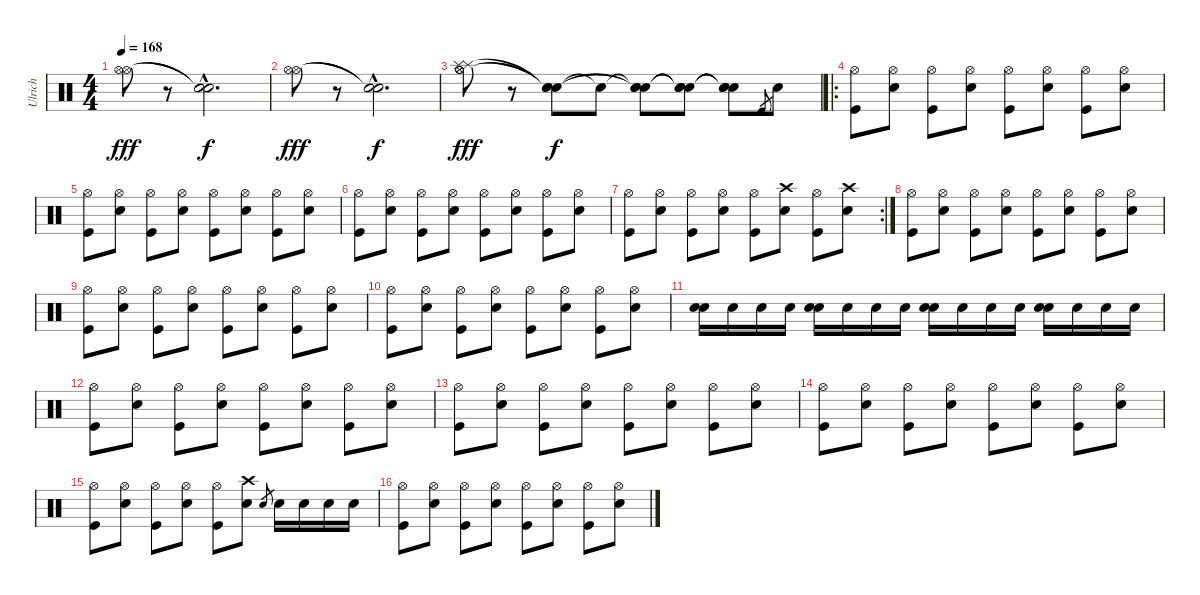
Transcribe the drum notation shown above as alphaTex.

\track ("Ulrich" "Ulrich") {instrument percussion}
\staff {score}
\articulation defaults
\ts (4 4)
\tempo 168
\clef neutral
\ks c
("Hi-Hat (open)" "Hi-Hat (open)").8{dy fff} r.8 ("Snare (hit)"{hac t} "Snare (hit)"{hac t}).2{d dy f} |
("Hi-Hat (open)" "Hi-Hat (open)").8{dy fff} r.8 ("Snare (hit)"{hac t} "Snare (hit)"{hac t}).2{d dy f} |
("Hi-Hat (open)" "Hi-Hat (open)" "Splash (hit)" "Splash (hit)").8{dy fff} r.8 ("Snare (hit)"{t} "Snare (hit)"{t} "Snare (hit)"{t}).8{dy f} "Snare (hit)"{t}.8 ("Snare (hit)"{t} "Snare (hit)"{t} "Snare (hit)"{t}).8 ("Snare (hit)"{t} "Snare (hit)"{t} "Snare (hit)"{t}).8 ("Snare (hit)"{t} "Snare (hit)"{t} "Snare (hit)"{t}).8 "Kick (hit)".8{gr} "Snare (hit) 2".8 |
\ro
("Hi-Hat (open)" "Kick (hit)").8 ("Hi-Hat (open)" "Snare (hit) 2").8 ("Hi-Hat (open)" "Kick (hit)").8 ("Hi-Hat (open)" "Snare (hit) 2").8 ("Hi-Hat (open)" "Kick (hit)").8 ("Hi-Hat (open)" "Snare (hit) 2").8 ("Hi-Hat (open)" "Kick (hit)").8 ("Hi-Hat (open)" "Snare (hit) 2").8 |
("Hi-Hat (open)" "Kick (hit)").8 ("Hi-Hat (open)" "Snare (hit) 2").8 ("Hi-Hat (open)" "Kick (hit)").8 ("Hi-Hat (open)" "Snare (hit) 2").8 ("Hi-Hat (open)" "Kick (hit)").8 ("Hi-Hat (open)" "Snare (hit) 2").8 ("Hi-Hat (open)" "Kick (hit)").8 ("Hi-Hat (open)" "Snare (hit) 2").8 |
("Hi-Hat (open)" "Kick (hit)").8 ("Hi-Hat (open)" "Snare (hit) 2").8 ("Hi-Hat (open)" "Kick (hit)").8 ("Hi-Hat (open)" "Snare (hit) 2").8 ("Hi-Hat (open)" "Kick (hit)").8 ("Hi-Hat (open)" "Snare (hit) 2").8 ("Hi-Hat (open)" "Kick (hit)").8 ("Hi-Hat (open)" "Snare (hit) 2").8 |
\rc 2
("Hi-Hat (open)" "Kick (hit)").8 ("Hi-Hat (open)" "Snare (hit) 2").8 ("Hi-Hat (open)" "Kick (hit)").8 ("Hi-Hat (open)" "Snare (hit) 2").8 ("Hi-Hat (open)" "Kick (hit)").8 ("Crash high (hit)" "Snare (hit) 2").8 ("Hi-Hat (open)" "Kick (hit)").8 ("Crash high (hit)" "Snare (hit) 2").8 |
("Hi-Hat (open)" "Kick (hit)").8 ("Hi-Hat (open)" "Snare (hit) 2").8 ("Hi-Hat (open)" "Kick (hit)").8 ("Hi-Hat (open)" "Snare (hit) 2").8 ("Hi-Hat (open)" "Kick (hit)").8 ("Hi-Hat (open)" "Snare (hit) 2").8 ("Hi-Hat (open)" "Kick (hit)").8 ("Hi-Hat (open)" "Snare (hit) 2").8 |
("Hi-Hat (open)" "Kick (hit)").8 ("Hi-Hat (open)" "Snare (hit) 2").8 ("Hi-Hat (open)" "Kick (hit)").8 ("Hi-Hat (open)" "Snare (hit) 2").8 ("Hi-Hat (open)" "Kick (hit)").8 ("Hi-Hat (open)" "Snare (hit) 2").8 ("Hi-Hat (open)" "Kick (hit)").8 ("Hi-Hat (open)" "Snare (hit) 2").8 |
("Hi-Hat (open)" "Kick (hit)").8 ("Hi-Hat (open)" "Snare (hit) 2").8 ("Hi-Hat (open)" "Kick (hit)").8 ("Hi-Hat (open)" "Snare (hit) 2").8 ("Hi-Hat (open)" "Kick (hit)").8 ("Hi-Hat (open)" "Snare (hit) 2").8 ("Hi-Hat (open)" "Kick (hit)").8 ("Hi-Hat (open)" "Snare (hit) 2").8 |
("Snare (hit) 2" "Snare (hit) 2").16 "Snare (hit) 2".16 "Snare (hit) 2".16 "Snare (hit) 2".16 ("Snare (hit) 2" "Snare (hit) 2").16 "Snare (hit) 2".16 "Snare (hit) 2".16 "Snare (hit) 2".16 ("Snare (hit) 2" "Snare (hit) 2").16 "Snare (hit) 2".16 "Snare (hit) 2".16 "Snare (hit) 2".16 ("Snare (hit) 2" "Snare (hit) 2").16 "Snare (hit) 2".16 "Snare (hit) 2".16 "Snare (hit) 2".16 |
("Hi-Hat (open)" "Kick (hit)").8 ("Hi-Hat (open)" "Snare (hit) 2").8 ("Hi-Hat (open)" "Kick (hit)").8 ("Hi-Hat (open)" "Snare (hit) 2").8 ("Hi-Hat (open)" "Kick (hit)").8 ("Hi-Hat (open)" "Snare (hit) 2").8 ("Hi-Hat (open)" "Kick (hit)").8 ("Hi-Hat (open)" "Snare (hit) 2").8 |
("Hi-Hat (open)" "Kick (hit)").8 ("Hi-Hat (open)" "Snare (hit) 2").8 ("Hi-Hat (open)" "Kick (hit)").8 ("Hi-Hat (open)" "Snare (hit) 2").8 ("Hi-Hat (open)" "Kick (hit)").8 ("Hi-Hat (open)" "Snare (hit) 2").8 ("Hi-Hat (open)" "Kick (hit)").8 ("Hi-Hat (open)" "Snare (hit) 2").8 |
("Hi-Hat (open)" "Kick (hit)").8 ("Hi-Hat (open)" "Snare (hit) 2").8 ("Hi-Hat (open)" "Kick (hit)").8 ("Hi-Hat (open)" "Snare (hit) 2").8 ("Hi-Hat (open)" "Kick (hit)").8 ("Hi-Hat (open)" "Snare (hit) 2").8 ("Hi-Hat (open)" "Kick (hit)").8 ("Hi-Hat (open)" "Snare (hit) 2").8 |
("Hi-Hat (open)" "Kick (hit)").8 ("Hi-Hat (open)" "Snare (hit) 2").8 ("Hi-Hat (open)" "Kick (hit)").8 ("Hi-Hat (open)" "Snare (hit) 2").8 ("Hi-Hat (open)" "Kick (hit)").8 ("Crash high (hit)" "Snare (hit) 2").8 "Snare (hit) 2".8{gr} "Snare (hit) 2".16 "Snare (hit) 2".16 "Snare (hit) 2".16 "Snare (hit) 2".16 |
("Hi-Hat (open)" "Kick (hit)").8 ("Hi-Hat (open)" "Snare (hit) 2").8 ("Hi-Hat (open)" "Kick (hit)").8 ("Hi-Hat (open)" "Snare (hit) 2").8 ("Hi-Hat (open)" "Kick (hit)").8 ("Hi-Hat (open)" "Snare (hit) 2").8 ("Hi-Hat (open)" "Kick (hit)").8 ("Hi-Hat (open)" "Snare (hit) 2").8
